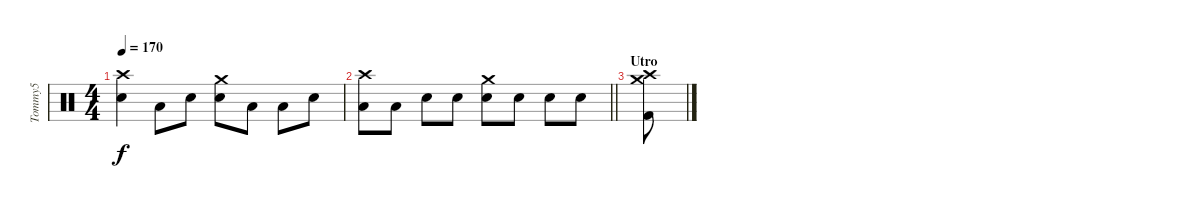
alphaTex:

\track ("Tommy5" "Tommy5") {instrument percussion}
\staff {score}
\articulation defaults
\ts (4 4)
\tempo 170
\clef neutral
\ks c
("Electric Snare (hit)" "Crash high (hit)").4{dy f} "Low Tom (hit)".8 "Snare (hit) 2".8 ("Snare (hit) 2" "Crash medium (hit)").8 "Low Tom (hit)".8 "Low Tom (hit)".8 "Electric Snare (hit)".8 |
\barLineRight lightlight
("Low Tom (hit)" "Crash high (hit)").8 "Low Tom (hit)".8 "Snare (hit) 2".8 "Snare (hit) 2".8 ("Electric Snare (hit)" "Crash medium (hit)").8 "Electric Snare (hit)".8 "Snare (hit) 2".8 "Electric Snare (hit)".8 |
\section ("" "Utro")
("Kick (hit) 2" "Crash high (hit)" "Crash medium (hit)").8
